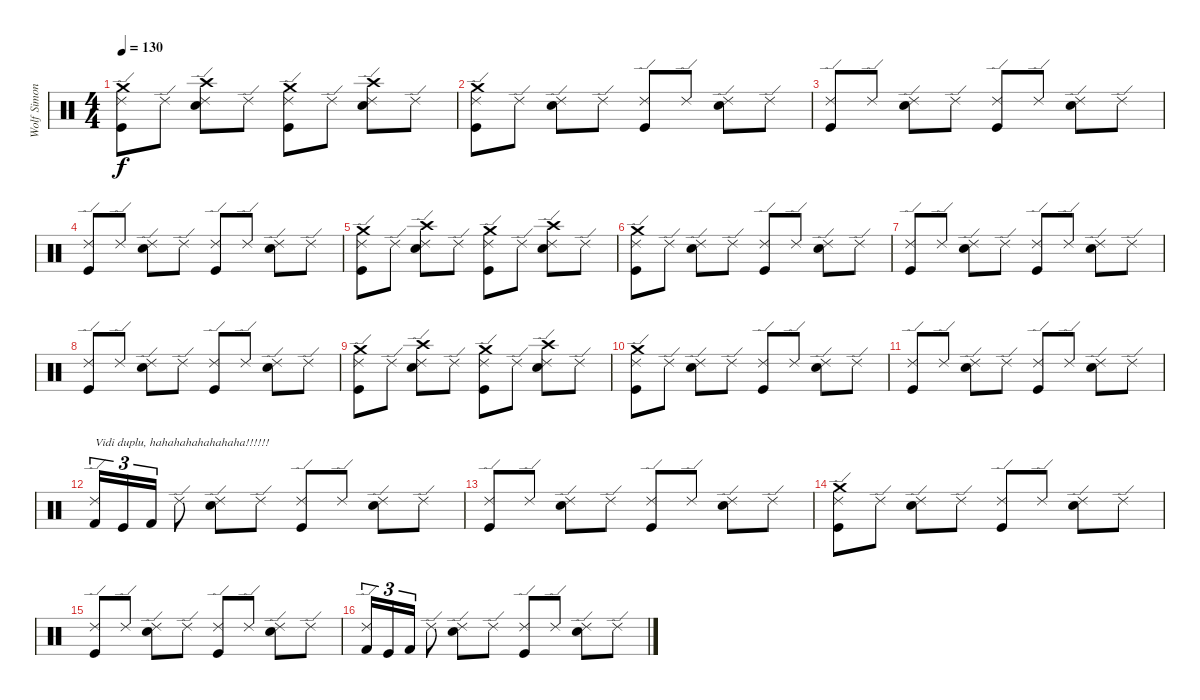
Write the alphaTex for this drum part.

\track ("Wolf Simon" "Wolf Simon") {instrument percussion}
\staff {score}
\articulation defaults
\ts (4 4)
\tempo 130
\clef neutral
\ks c
("Crash medium (hit)" "Ride (edge) 2" "Kick (hit)").8{dy f} "Ride (edge) 2".8 ("Crash high (hit)" "Ride (edge) 2" "Electric Snare (hit)").8 "Ride (edge) 2".8 ("Crash medium (hit)" "Ride (edge) 2" "Kick (hit)").8 "Ride (edge) 2".8 ("Crash high (hit)" "Ride (edge) 2" "Electric Snare (hit)").8 "Ride (edge) 2".8 |
("Crash medium (hit)" "Ride (edge) 2" "Kick (hit)").8 "Ride (edge) 2".8 ("Ride (edge) 2" "Electric Snare (hit)").8 "Ride (edge) 2".8 ("Ride (edge) 2" "Kick (hit)").8 "Ride (edge) 2".8 ("Ride (edge) 2" "Electric Snare (hit)").8 "Ride (edge) 2".8 |
("Ride (edge) 2" "Kick (hit)").8 "Ride (edge) 2".8 ("Ride (edge) 2" "Electric Snare (hit)").8 "Ride (edge) 2".8 ("Ride (edge) 2" "Kick (hit)").8 "Ride (edge) 2".8 ("Ride (edge) 2" "Electric Snare (hit)").8 "Ride (edge) 2".8 |
("Ride (edge) 2" "Kick (hit)").8 "Ride (edge) 2".8 ("Ride (edge) 2" "Electric Snare (hit)").8 "Ride (edge) 2".8 ("Ride (edge) 2" "Kick (hit)").8 "Ride (edge) 2".8 ("Ride (edge) 2" "Electric Snare (hit)").8 "Ride (edge) 2".8 |
("Crash medium (hit)" "Ride (edge) 2" "Kick (hit)").8 "Ride (edge) 2".8 ("Crash high (hit)" "Ride (edge) 2" "Electric Snare (hit)").8 "Ride (edge) 2".8 ("Crash medium (hit)" "Ride (edge) 2" "Kick (hit)").8 "Ride (edge) 2".8 ("Crash high (hit)" "Ride (edge) 2" "Electric Snare (hit)").8 "Ride (edge) 2".8 |
("Crash medium (hit)" "Ride (edge) 2" "Kick (hit)").8 "Ride (edge) 2".8 ("Ride (edge) 2" "Electric Snare (hit)").8 "Ride (edge) 2".8 ("Ride (edge) 2" "Kick (hit)").8 "Ride (edge) 2".8 ("Ride (edge) 2" "Electric Snare (hit)").8 "Ride (edge) 2".8 |
("Ride (edge) 2" "Kick (hit)").8 "Ride (edge) 2".8 ("Ride (edge) 2" "Electric Snare (hit)").8 "Ride (edge) 2".8 ("Ride (edge) 2" "Kick (hit)").8 "Ride (edge) 2".8 ("Ride (edge) 2" "Electric Snare (hit)").8 "Ride (edge) 2".8 |
("Ride (edge) 2" "Kick (hit)").8 "Ride (edge) 2".8 ("Ride (edge) 2" "Electric Snare (hit)").8 "Ride (edge) 2".8 ("Ride (edge) 2" "Kick (hit)").8 "Ride (edge) 2".8 ("Ride (edge) 2" "Electric Snare (hit)").8 "Ride (edge) 2".8 |
("Crash medium (hit)" "Ride (edge) 2" "Kick (hit)").8 "Ride (edge) 2".8 ("Crash high (hit)" "Ride (edge) 2" "Electric Snare (hit)").8 "Ride (edge) 2".8 ("Crash medium (hit)" "Ride (edge) 2" "Kick (hit)").8 "Ride (edge) 2".8 ("Crash high (hit)" "Ride (edge) 2" "Electric Snare (hit)").8 "Ride (edge) 2".8 |
("Crash medium (hit)" "Ride (edge) 2" "Kick (hit)").8 "Ride (edge) 2".8 ("Ride (edge) 2" "Electric Snare (hit)").8 "Ride (edge) 2".8 ("Ride (edge) 2" "Kick (hit)").8 "Ride (edge) 2".8 ("Ride (edge) 2" "Electric Snare (hit)").8 "Ride (edge) 2".8 |
("Ride (edge) 2" "Kick (hit)").8 "Ride (edge) 2".8 ("Ride (edge) 2" "Electric Snare (hit)").8 "Ride (edge) 2".8 ("Ride (edge) 2" "Kick (hit)").8 "Ride (edge) 2".8 ("Ride (edge) 2" "Electric Snare (hit)").8 "Ride (edge) 2".8 |
("Ride (edge) 2" "Kick (hit) 2").16{tu (3 2) txt "Vidi duplu, hahahahahahahaha!!!!!!"} "Kick (hit)".16{tu (3 2)} "Kick (hit) 2".16{tu (3 2)} "Ride (edge) 2".8 ("Ride (edge) 2" "Electric Snare (hit)").8 "Ride (edge) 2".8 ("Ride (edge) 2" "Kick (hit)").8 "Ride (edge) 2".8 ("Ride (edge) 2" "Electric Snare (hit)").8 "Ride (edge) 2".8 |
("Ride (edge) 2" "Kick (hit)").8 "Ride (edge) 2".8 ("Ride (edge) 2" "Electric Snare (hit)").8 "Ride (edge) 2".8 ("Ride (edge) 2" "Kick (hit)").8 "Ride (edge) 2".8 ("Ride (edge) 2" "Electric Snare (hit)").8 "Ride (edge) 2".8 |
("Crash medium (hit)" "Ride (edge) 2" "Kick (hit)").8 "Ride (edge) 2".8 ("Ride (edge) 2" "Electric Snare (hit)").8 "Ride (edge) 2".8 ("Ride (edge) 2" "Kick (hit)").8 "Ride (edge) 2".8 ("Ride (edge) 2" "Electric Snare (hit)").8 "Ride (edge) 2".8 |
("Ride (edge) 2" "Kick (hit)").8 "Ride (edge) 2".8 ("Ride (edge) 2" "Electric Snare (hit)").8 "Ride (edge) 2".8 ("Ride (edge) 2" "Kick (hit)").8 "Ride (edge) 2".8 ("Ride (edge) 2" "Electric Snare (hit)").8 "Ride (edge) 2".8 |
("Ride (edge) 2" "Kick (hit) 2").16{tu (3 2)} "Kick (hit)".16{tu (3 2)} "Kick (hit) 2".16{tu (3 2)} "Ride (edge) 2".8 ("Ride (edge) 2" "Electric Snare (hit)").8 "Ride (edge) 2".8 ("Ride (edge) 2" "Kick (hit)").8 "Ride (edge) 2".8 ("Ride (edge) 2" "Electric Snare (hit)").8 "Ride (edge) 2".8
